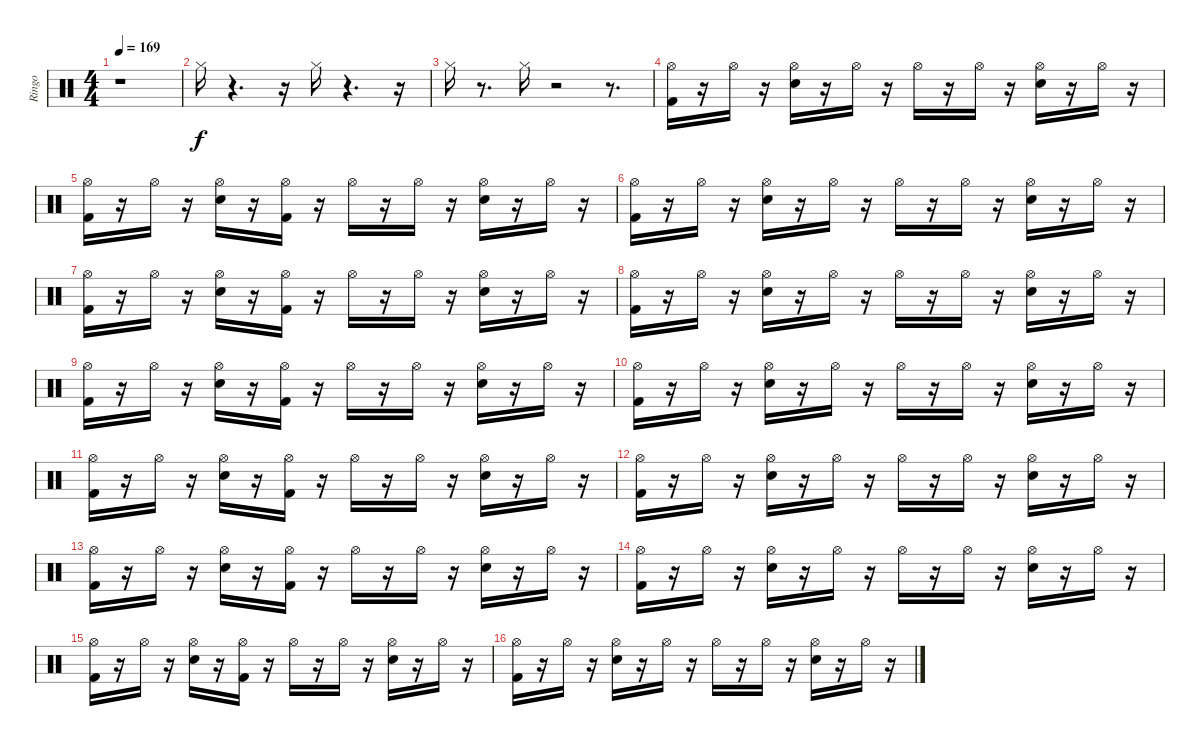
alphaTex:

\track ("Ringo" "Ringo") {instrument percussion}
\staff {score}
\articulation defaults
\ts (4 4)
\tempo 169
\clef neutral
\ks c
r.1{dy f} |
"Hi-Hat (closed)".16 r.4{d} r.16 "Hi-Hat (closed)".16 r.4{d} r.16 |
"Hi-Hat (closed)".16 r.8{d} "Hi-Hat (closed)".16 r.2 r.8{d} |
("Hi-Hat (open)" "Kick (hit) 2").16 r.16 "Hi-Hat (open)".16 r.16 ("Hi-Hat (open)" "Snare (hit) 2").16 r.16 "Hi-Hat (open)".16 r.16 "Hi-Hat (open)".16 r.16 "Hi-Hat (open)".16 r.16 ("Hi-Hat (open)" "Snare (hit) 2").16 r.16 "Hi-Hat (open)".16 r.16 |
("Hi-Hat (open)" "Kick (hit) 2").16 r.16 "Hi-Hat (open)".16 r.16 ("Hi-Hat (open)" "Snare (hit) 2").16 r.16 ("Hi-Hat (open)" "Kick (hit) 2").16 r.16 "Hi-Hat (open)".16 r.16 "Hi-Hat (open)".16 r.16 ("Hi-Hat (open)" "Snare (hit) 2").16 r.16 "Hi-Hat (open)".16 r.16 |
("Kick (hit) 2" "Hi-Hat (open)").16 r.16 "Hi-Hat (open)".16 r.16 ("Snare (hit) 2" "Hi-Hat (open)").16 r.16 "Hi-Hat (open)".16 r.16 "Hi-Hat (open)".16 r.16 "Hi-Hat (open)".16 r.16 ("Snare (hit) 2" "Hi-Hat (open)").16 r.16 "Hi-Hat (open)".16 r.16 |
("Kick (hit) 2" "Hi-Hat (open)").16 r.16 "Hi-Hat (open)".16 r.16 ("Snare (hit) 2" "Hi-Hat (open)").16 r.16 ("Kick (hit) 2" "Hi-Hat (open)").16 r.16 "Hi-Hat (open)".16 r.16 "Hi-Hat (open)".16 r.16 ("Snare (hit) 2" "Hi-Hat (open)").16 r.16 "Hi-Hat (open)".16 r.16 |
("Kick (hit) 2" "Hi-Hat (open)").16 r.16 "Hi-Hat (open)".16 r.16 ("Snare (hit) 2" "Hi-Hat (open)").16 r.16 "Hi-Hat (open)".16 r.16 "Hi-Hat (open)".16 r.16 "Hi-Hat (open)".16 r.16 ("Snare (hit) 2" "Hi-Hat (open)").16 r.16 "Hi-Hat (open)".16 r.16 |
("Kick (hit) 2" "Hi-Hat (open)").16 r.16 "Hi-Hat (open)".16 r.16 ("Snare (hit) 2" "Hi-Hat (open)").16 r.16 ("Kick (hit) 2" "Hi-Hat (open)").16 r.16 "Hi-Hat (open)".16 r.16 "Hi-Hat (open)".16 r.16 ("Snare (hit) 2" "Hi-Hat (open)").16 r.16 "Hi-Hat (open)".16 r.16 |
("Kick (hit) 2" "Hi-Hat (open)").16 r.16 "Hi-Hat (open)".16 r.16 ("Snare (hit) 2" "Hi-Hat (open)").16 r.16 "Hi-Hat (open)".16 r.16 "Hi-Hat (open)".16 r.16 "Hi-Hat (open)".16 r.16 ("Snare (hit) 2" "Hi-Hat (open)").16 r.16 "Hi-Hat (open)".16 r.16 |
("Kick (hit) 2" "Hi-Hat (open)").16 r.16 "Hi-Hat (open)".16 r.16 ("Snare (hit) 2" "Hi-Hat (open)").16 r.16 ("Kick (hit) 2" "Hi-Hat (open)").16 r.16 "Hi-Hat (open)".16 r.16 "Hi-Hat (open)".16 r.16 ("Snare (hit) 2" "Hi-Hat (open)").16 r.16 "Hi-Hat (open)".16 r.16 |
("Kick (hit) 2" "Hi-Hat (open)").16 r.16 "Hi-Hat (open)".16 r.16 ("Snare (hit) 2" "Hi-Hat (open)").16 r.16 "Hi-Hat (open)".16 r.16 "Hi-Hat (open)".16 r.16 "Hi-Hat (open)".16 r.16 ("Snare (hit) 2" "Hi-Hat (open)").16 r.16 "Hi-Hat (open)".16 r.16 |
("Kick (hit) 2" "Hi-Hat (open)").16 r.16 "Hi-Hat (open)".16 r.16 ("Snare (hit) 2" "Hi-Hat (open)").16 r.16 ("Kick (hit) 2" "Hi-Hat (open)").16 r.16 "Hi-Hat (open)".16 r.16 "Hi-Hat (open)".16 r.16 ("Snare (hit) 2" "Hi-Hat (open)").16 r.16 "Hi-Hat (open)".16 r.16 |
("Kick (hit) 2" "Hi-Hat (open)").16 r.16 "Hi-Hat (open)".16 r.16 ("Snare (hit) 2" "Hi-Hat (open)").16 r.16 "Hi-Hat (open)".16 r.16 "Hi-Hat (open)".16 r.16 "Hi-Hat (open)".16 r.16 ("Snare (hit) 2" "Hi-Hat (open)").16 r.16 "Hi-Hat (open)".16 r.16 |
("Kick (hit) 2" "Hi-Hat (open)").16 r.16 "Hi-Hat (open)".16 r.16 ("Snare (hit) 2" "Hi-Hat (open)").16 r.16 ("Kick (hit) 2" "Hi-Hat (open)").16 r.16 "Hi-Hat (open)".16 r.16 "Hi-Hat (open)".16 r.16 ("Snare (hit) 2" "Hi-Hat (open)").16 r.16 "Hi-Hat (open)".16 r.16 |
("Kick (hit) 2" "Hi-Hat (open)").16 r.16 "Hi-Hat (open)".16 r.16 ("Snare (hit) 2" "Hi-Hat (open)").16 r.16 "Hi-Hat (open)".16 r.16 "Hi-Hat (open)".16 r.16 "Hi-Hat (open)".16 r.16 ("Snare (hit) 2" "Hi-Hat (open)").16 r.16 "Hi-Hat (open)".16 r.16
